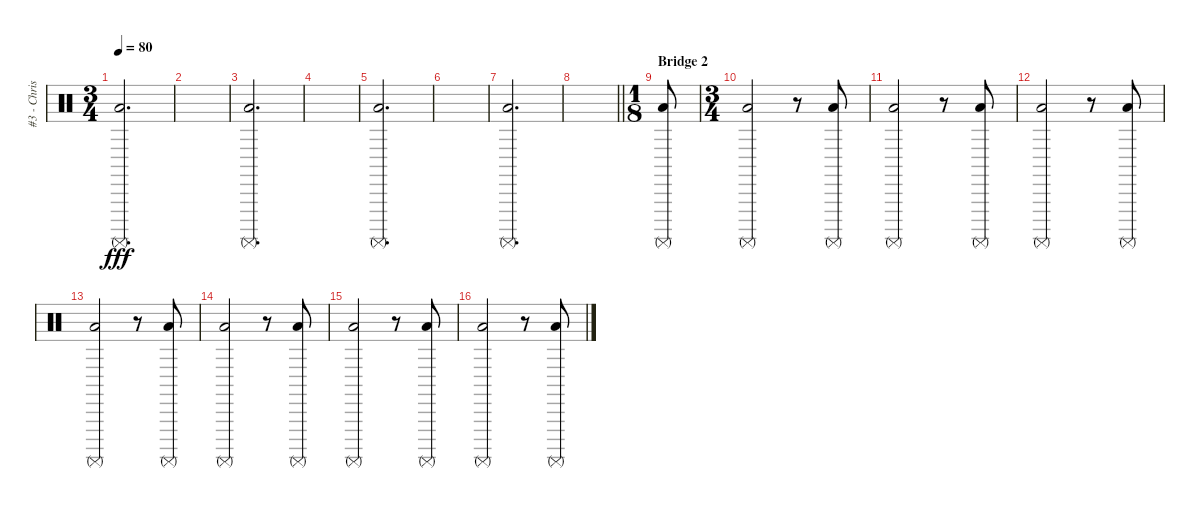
\track ("#3 - Chris Fehn" "#3 - Chris") {instrument percussion}
\staff {score}
\articulation defaults
\ts (3 4)
\tempo 80
\clef neutral
\ks c
("Low Floor Tom (hit)" "Surdo (mute)").2{d dy fff volume 16} |
|
("Low Floor Tom (hit)" "Surdo (mute)").2{d} |
|
("Low Floor Tom (hit)" "Surdo (mute)").2{d volume 16} |
|
("Low Floor Tom (hit)" "Surdo (mute)").2{d} |
\barLineRight lightlight
|
\ts (1 8)
\section ("" "Bridge 2")
("Low Floor Tom (hit)" "Surdo (mute)").8 |
\ts (3 4)
("Low Floor Tom (hit)" "Surdo (mute)").2 r.8 ("Low Floor Tom (hit)" "Surdo (mute)").8 |
("Low Floor Tom (hit)" "Surdo (mute)").2 r.8 ("Low Floor Tom (hit)" "Surdo (mute)").8 |
("Low Floor Tom (hit)" "Surdo (mute)").2 r.8 ("Low Floor Tom (hit)" "Surdo (mute)").8 |
("Low Floor Tom (hit)" "Surdo (mute)").2 r.8 ("Low Floor Tom (hit)" "Surdo (mute)").8 |
("Low Floor Tom (hit)" "Surdo (mute)").2 r.8 ("Low Floor Tom (hit)" "Surdo (mute)").8 |
("Low Floor Tom (hit)" "Surdo (mute)").2 r.8 ("Low Floor Tom (hit)" "Surdo (mute)").8 |
("Low Floor Tom (hit)" "Surdo (mute)").2 r.8 ("Low Floor Tom (hit)" "Surdo (mute)").8
